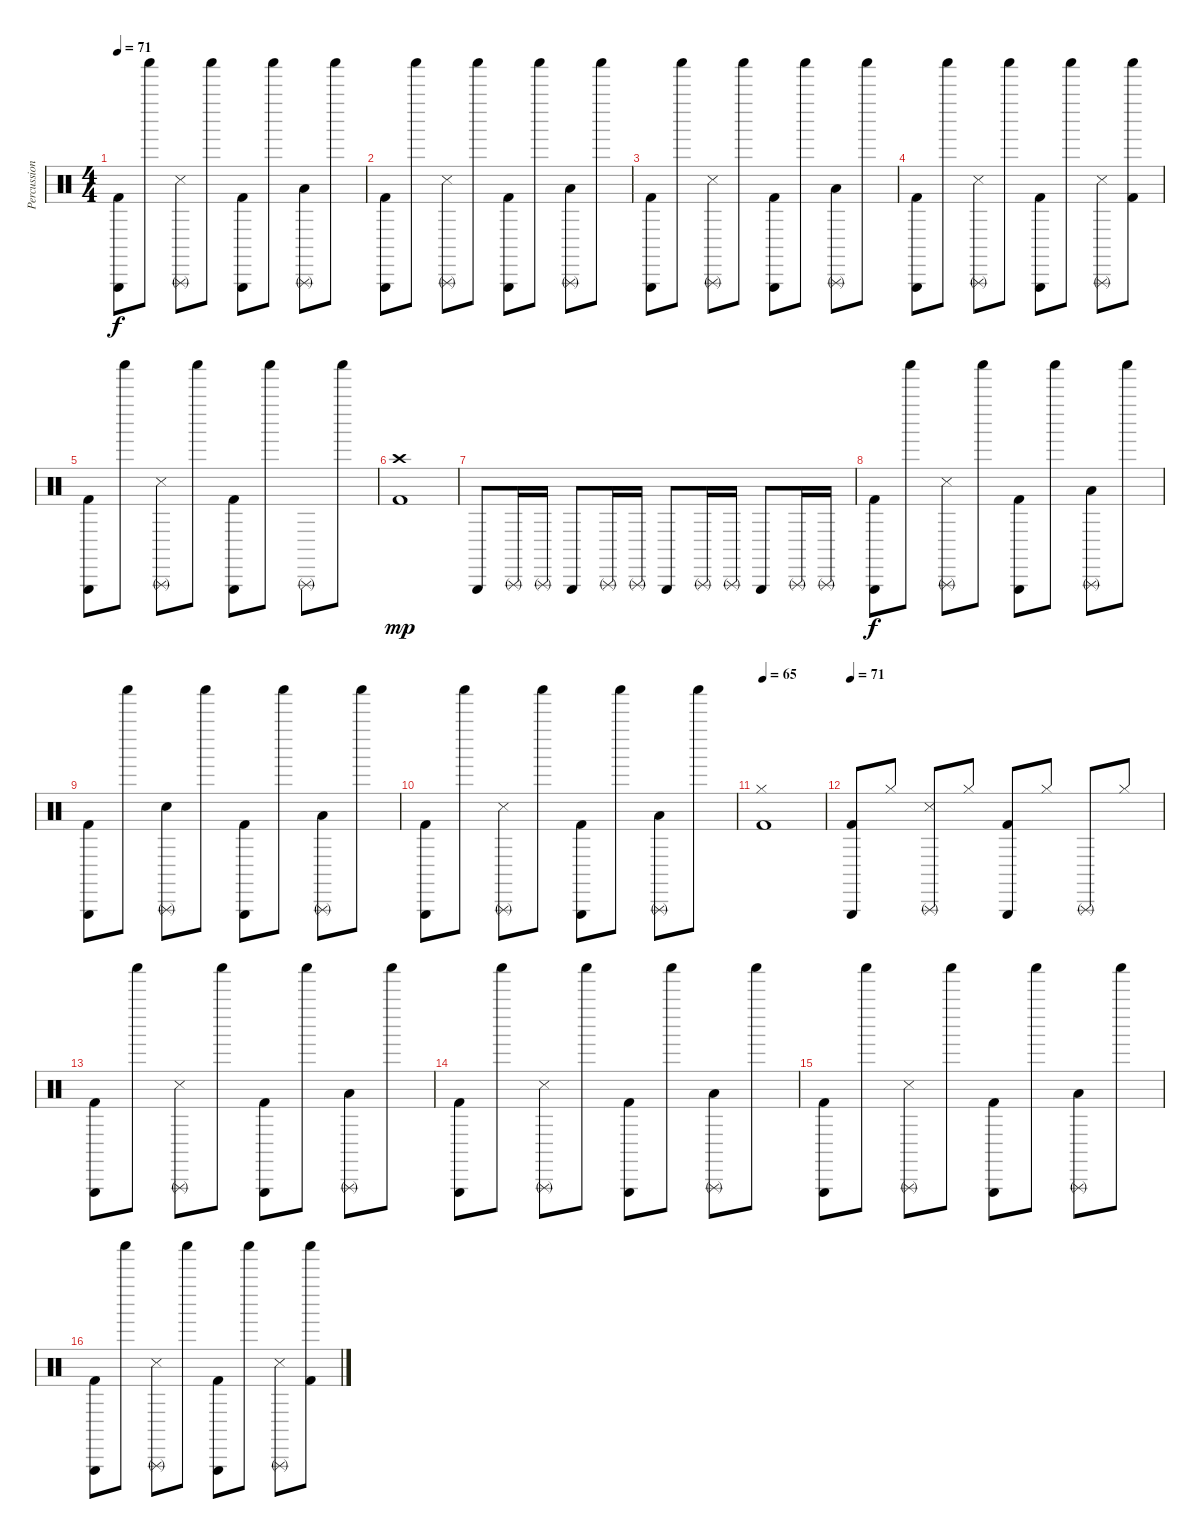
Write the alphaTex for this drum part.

\track ("Percussion" "Percussion") {instrument percussion}
\staff {score}
\articulation defaults
\ts (4 4)
\tempo 71
\clef neutral
\ks c
("Triangle (hit)" "Kick (hit) 2").8{dy f} "Shaker (hit)".8 ("Triangle (rnute)" "Snare (side stick) 3").8 "Shaker (hit)".8 ("Triangle (hit)" "Kick (hit) 2").8 "Shaker (hit)".8 ("Triangle (rnute)" "Low Tom (hit)").8 "Shaker (hit)".8 |
("Triangle (hit)" "Kick (hit) 2").8 "Shaker (hit)".8 ("Triangle (rnute)" "Snare (side stick) 3").8 "Shaker (hit)".8 ("Triangle (hit)" "Kick (hit) 2").8 "Shaker (hit)".8 ("Triangle (rnute)" "Low Tom (hit)").8 "Shaker (hit)".8 |
("Triangle (hit)" "Kick (hit) 2").8 "Shaker (hit)".8 ("Triangle (rnute)" "Snare (side stick) 3").8 "Shaker (hit)".8 ("Triangle (hit)" "Kick (hit) 2").8 "Shaker (hit)".8 ("Triangle (rnute)" "Low Tom (hit)").8 "Shaker (hit)".8 |
("Triangle (hit)" "Kick (hit) 2").8 "Shaker (hit)".8 ("Triangle (rnute)" "Snare (side stick) 3").8 "Shaker (hit)".8 ("Triangle (hit)" "Kick (hit) 2").8 "Shaker (hit)".8 ("Triangle (rnute)" "Snare (side stick) 3").8 ("Shaker (hit)" "Kick (hit) 2").8 |
("Triangle (hit)" "Kick (hit) 2").8 "Shaker (hit)".8 ("Triangle (rnute)" "Snare (side stick) 3").8 "Shaker (hit)".8 ("Triangle (hit)" "Kick (hit) 2").8 "Shaker (hit)".8 "Triangle (rnute)".8 "Shaker (hit)".8 |
("Crash high (hit)" "Kick (hit) 2").1{dy mp} |
"Triangle (hit)".8 "Triangle (rnute)".16 "Triangle (rnute)".16 "Triangle (hit)".8 "Triangle (rnute)".16 "Triangle (rnute)".16 "Triangle (hit)".8 "Triangle (rnute)".16 "Triangle (rnute)".16 "Triangle (hit)".8 "Triangle (rnute)".16 "Triangle (rnute)".16 |
("Triangle (hit)" "Kick (hit) 2").8{dy f} "Shaker (hit)".8 ("Triangle (rnute)" "Snare (side stick) 3").8 "Shaker (hit)".8 ("Triangle (hit)" "Kick (hit) 2").8 "Shaker (hit)".8 ("Triangle (rnute)" "Low Tom (hit)").8 "Shaker (hit)".8 |
("Triangle (hit)" "Kick (hit) 2").8 "Shaker (hit)".8 ("Triangle (rnute)" "Electric Snare (hit)").8 "Shaker (hit)".8 ("Triangle (hit)" "Kick (hit) 2").8 "Shaker (hit)".8 ("Triangle (rnute)" "Low Tom (hit)").8 "Shaker (hit)".8 |
("Triangle (hit)" "Kick (hit) 2").8 "Shaker (hit)".8 ("Triangle (rnute)" "Snare (side stick) 3").8 "Shaker (hit)".8 ("Triangle (hit)" "Kick (hit) 2").8 "Shaker (hit)".8 ("Triangle (rnute)" "Low Tom (hit)").8 "Shaker (hit)".8 |
\tempo 65
("Hi-Hat (closed)" "Kick (hit) 2").1 |
\tempo 71
("Triangle (hit)" "Kick (hit) 2").8 "Hi-Hat (closed)".8 ("Triangle (rnute)" "Snare (side stick) 3").8 "Hi-Hat (closed)".8 ("Triangle (hit)" "Kick (hit) 2").8 "Hi-Hat (closed)".8 "Triangle (rnute)".8 "Hi-Hat (closed)".8 |
("Triangle (hit)" "Kick (hit) 2").8 "Shaker (hit)".8 ("Triangle (rnute)" "Snare (side stick) 3").8 "Shaker (hit)".8 ("Triangle (hit)" "Kick (hit) 2").8 "Shaker (hit)".8 ("Triangle (rnute)" "Low Tom (hit)").8 "Shaker (hit)".8 |
("Triangle (hit)" "Kick (hit) 2").8 "Shaker (hit)".8 ("Triangle (rnute)" "Snare (side stick) 3").8 "Shaker (hit)".8 ("Triangle (hit)" "Kick (hit) 2").8 "Shaker (hit)".8 ("Triangle (rnute)" "Low Tom (hit)").8 "Shaker (hit)".8 |
("Triangle (hit)" "Kick (hit) 2").8 "Shaker (hit)".8 ("Triangle (rnute)" "Snare (side stick) 3").8 "Shaker (hit)".8 ("Triangle (hit)" "Kick (hit) 2").8 "Shaker (hit)".8 ("Triangle (rnute)" "Low Tom (hit)").8 "Shaker (hit)".8 |
("Triangle (hit)" "Kick (hit) 2").8 "Shaker (hit)".8 ("Triangle (rnute)" "Snare (side stick) 3").8 "Shaker (hit)".8 ("Triangle (hit)" "Kick (hit) 2").8 "Shaker (hit)".8 ("Triangle (rnute)" "Snare (side stick) 3").8 ("Shaker (hit)" "Kick (hit) 2").8
